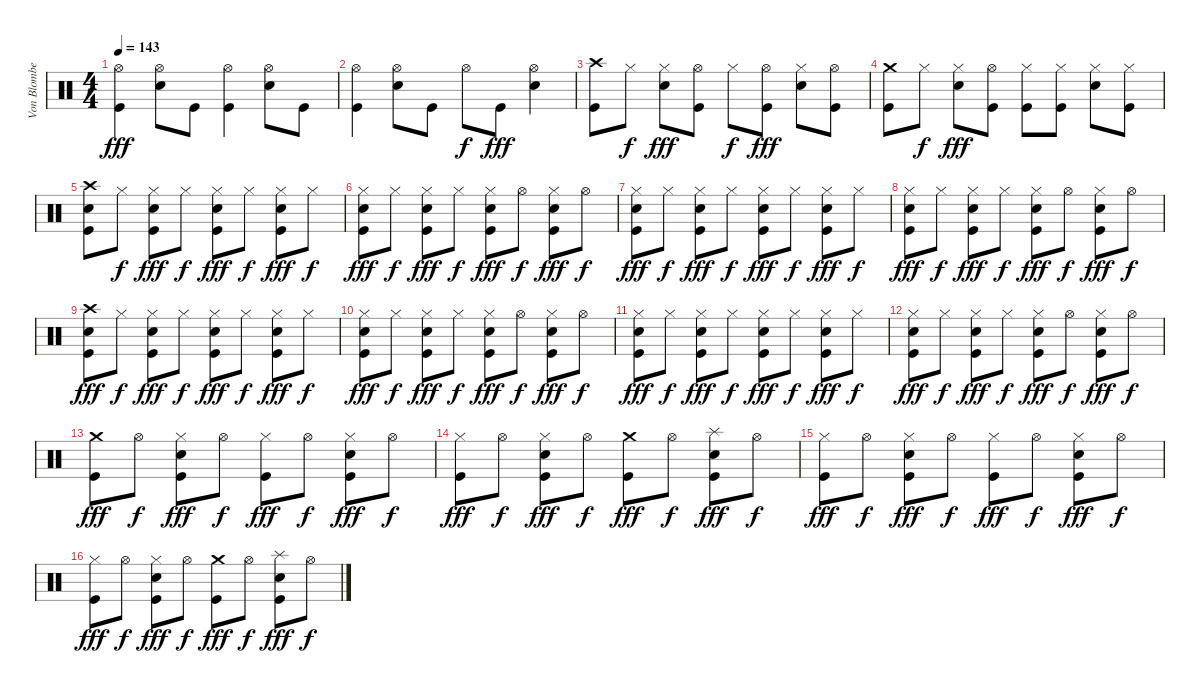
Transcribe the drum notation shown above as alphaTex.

\track ("Von Blomberg" "Von Blombe") {instrument percussion}
\staff {score}
\articulation defaults
\ts (4 4)
\tempo 143
\clef neutral
\ks c
("Hi-Hat (open)" "Kick (hit)").4{dy fff} ("Hi-Hat (open)" "Electric Snare (hit)").8 "Kick (hit)".8 ("Hi-Hat (open)" "Kick (hit)").4 ("Hi-Hat (open)" "Electric Snare (hit)").8 "Kick (hit)".8 |
("Hi-Hat (open)" "Kick (hit)").4 ("Hi-Hat (open)" "Electric Snare (hit)").8 "Kick (hit)".8 "Hi-Hat (open)".8{dy f} "Kick (hit)".8{dy fff} ("Hi-Hat (open)" "Electric Snare (hit)").4 |
("Crash high (hit)" "Kick (hit)").8 "Hi-Hat (closed)".8{dy f} ("Hi-Hat (closed)" "Electric Snare (hit)").8{dy fff} ("Hi-Hat (open)" "Kick (hit)").8 "Hi-Hat (closed)".8{dy f} ("Hi-Hat (open)" "Kick (hit)").8{dy fff} ("Hi-Hat (closed)" "Electric Snare (hit)").8 ("Hi-Hat (open)" "Kick (hit)").8 |
("Crash medium (hit)" "Kick (hit)").8 "Hi-Hat (closed)".8{dy f} ("Hi-Hat (closed)" "Electric Snare (hit)").8{dy fff} ("Hi-Hat (open)" "Kick (hit)").8 ("Hi-Hat (closed)" "Kick (hit)").8 ("Hi-Hat (closed)" "Kick (hit)").8 ("Hi-Hat (closed)" "Electric Snare (hit)").8 ("Hi-Hat (closed)" "Kick (hit)").8 |
("Crash high (hit)" "Kick (hit)" "Electric Snare (hit)").8 "Hi-Hat (closed)".8{dy f} ("Hi-Hat (closed)" "Kick (hit)" "Electric Snare (hit)").8{dy fff} "Hi-Hat (closed)".8{dy f} ("Hi-Hat (closed)" "Electric Snare (hit)" "Kick (hit)").8{dy fff} "Hi-Hat (closed)".8{dy f} ("Hi-Hat (closed)" "Kick (hit)" "Electric Snare (hit)").8{dy fff} "Hi-Hat (closed)".8{dy f} |
("Hi-Hat (closed)" "Kick (hit)" "Electric Snare (hit)").8{dy fff} "Hi-Hat (closed)".8{dy f} ("Hi-Hat (closed)" "Kick (hit)" "Electric Snare (hit)").8{dy fff} "Hi-Hat (closed)".8{dy f} ("Hi-Hat (closed)" "Kick (hit)" "Electric Snare (hit)").8{dy fff} "Hi-Hat (open)".8{dy f} ("Hi-Hat (closed)" "Kick (hit)" "Electric Snare (hit)").8{dy fff} "Hi-Hat (open)".8{dy f} |
("Hi-Hat (closed)" "Electric Snare (hit)" "Kick (hit)").8{dy fff} "Hi-Hat (closed)".8{dy f} ("Hi-Hat (closed)" "Electric Snare (hit)" "Kick (hit)").8{dy fff} "Hi-Hat (closed)".8{dy f} ("Hi-Hat (closed)" "Electric Snare (hit)" "Kick (hit)").8{dy fff} "Hi-Hat (closed)".8{dy f} ("Hi-Hat (closed)" "Electric Snare (hit)" "Kick (hit)").8{dy fff} "Hi-Hat (closed)".8{dy f} |
("Hi-Hat (closed)" "Electric Snare (hit)" "Kick (hit)").8{dy fff} "Hi-Hat (closed)".8{dy f} ("Hi-Hat (closed)" "Electric Snare (hit)" "Kick (hit)").8{dy fff} "Hi-Hat (closed)".8{dy f} ("Hi-Hat (closed)" "Electric Snare (hit)" "Kick (hit)").8{dy fff} "Hi-Hat (open)".8{dy f} ("Hi-Hat (closed)" "Electric Snare (hit)" "Kick (hit)").8{dy fff} "Hi-Hat (open)".8{dy f} |
("Crash high (hit)" "Kick (hit)" "Electric Snare (hit)").8{dy fff} "Hi-Hat (closed)".8{dy f} ("Hi-Hat (closed)" "Kick (hit)" "Electric Snare (hit)").8{dy fff} "Hi-Hat (closed)".8{dy f} ("Hi-Hat (closed)" "Kick (hit)" "Electric Snare (hit)").8{dy fff} "Hi-Hat (closed)".8{dy f} ("Hi-Hat (closed)" "Kick (hit)" "Electric Snare (hit)").8{dy fff} "Hi-Hat (closed)".8{dy f} |
("Hi-Hat (closed)" "Kick (hit)" "Electric Snare (hit)").8{dy fff} "Hi-Hat (closed)".8{dy f} ("Hi-Hat (closed)" "Kick (hit)" "Electric Snare (hit)").8{dy fff} "Hi-Hat (closed)".8{dy f} ("Hi-Hat (closed)" "Kick (hit)" "Electric Snare (hit)").8{dy fff} "Hi-Hat (open)".8{dy f} ("Hi-Hat (closed)" "Kick (hit)" "Electric Snare (hit)").8{dy fff} "Hi-Hat (open)".8{dy f} |
("Hi-Hat (closed)" "Electric Snare (hit)" "Kick (hit)").8{dy fff} "Hi-Hat (closed)".8{dy f} ("Hi-Hat (closed)" "Electric Snare (hit)" "Kick (hit)").8{dy fff} "Hi-Hat (closed)".8{dy f} ("Hi-Hat (closed)" "Electric Snare (hit)" "Kick (hit)").8{dy fff} "Hi-Hat (closed)".8{dy f} ("Hi-Hat (closed)" "Electric Snare (hit)" "Kick (hit)").8{dy fff} "Hi-Hat (closed)".8{dy f} |
("Hi-Hat (closed)" "Electric Snare (hit)" "Kick (hit)").8{dy fff} "Hi-Hat (closed)".8{dy f} ("Hi-Hat (closed)" "Electric Snare (hit)" "Kick (hit)").8{dy fff} "Hi-Hat (closed)".8{dy f} ("Hi-Hat (closed)" "Electric Snare (hit)" "Kick (hit)").8{dy fff} "Hi-Hat (open)".8{dy f} ("Hi-Hat (closed)" "Electric Snare (hit)" "Kick (hit)").8{dy fff} "Hi-Hat (open)".8{dy f} |
("Crash medium (hit)" "Kick (hit)").8{dy fff} "Hi-Hat (open)".8{dy f} ("Hi-Hat (closed)" "Electric Snare (hit)" "Kick (hit)").8{dy fff} "Hi-Hat (open)".8{dy f} ("Hi-Hat (closed)" "Kick (hit)").8{dy fff} "Hi-Hat (open)".8{dy f} ("Hi-Hat (closed)" "Electric Snare (hit)" "Kick (hit)").8{dy fff} "Hi-Hat (open)".8{dy f} |
("Hi-Hat (closed)" "Kick (hit)").8{dy fff} "Hi-Hat (open)".8{dy f} ("Hi-Hat (closed)" "Electric Snare (hit)" "Kick (hit)").8{dy fff} "Hi-Hat (open)".8{dy f} ("Crash medium (hit)" "Kick (hit)").8{dy fff} "Hi-Hat (open)".8{dy f} ("Splash (hit)" "Electric Snare (hit)" "Kick (hit)").8{dy fff} "Hi-Hat (open)".8{dy f} |
("Hi-Hat (closed)" "Kick (hit)").8{dy fff} "Hi-Hat (open)".8{dy f} ("Hi-Hat (closed)" "Electric Snare (hit)" "Kick (hit)").8{dy fff} "Hi-Hat (open)".8{dy f} ("Hi-Hat (closed)" "Kick (hit)").8{dy fff} "Hi-Hat (open)".8{dy f} ("Hi-Hat (closed)" "Electric Snare (hit)" "Kick (hit)").8{dy fff} "Hi-Hat (open)".8{dy f} |
("Hi-Hat (closed)" "Kick (hit)").8{dy fff} "Hi-Hat (open)".8{dy f} ("Hi-Hat (closed)" "Electric Snare (hit)" "Kick (hit)").8{dy fff} "Hi-Hat (open)".8{dy f} ("Crash medium (hit)" "Kick (hit)").8{dy fff} "Hi-Hat (open)".8{dy f} ("Splash (hit)" "Electric Snare (hit)" "Kick (hit)").8{dy fff} "Hi-Hat (open)".8{dy f}
